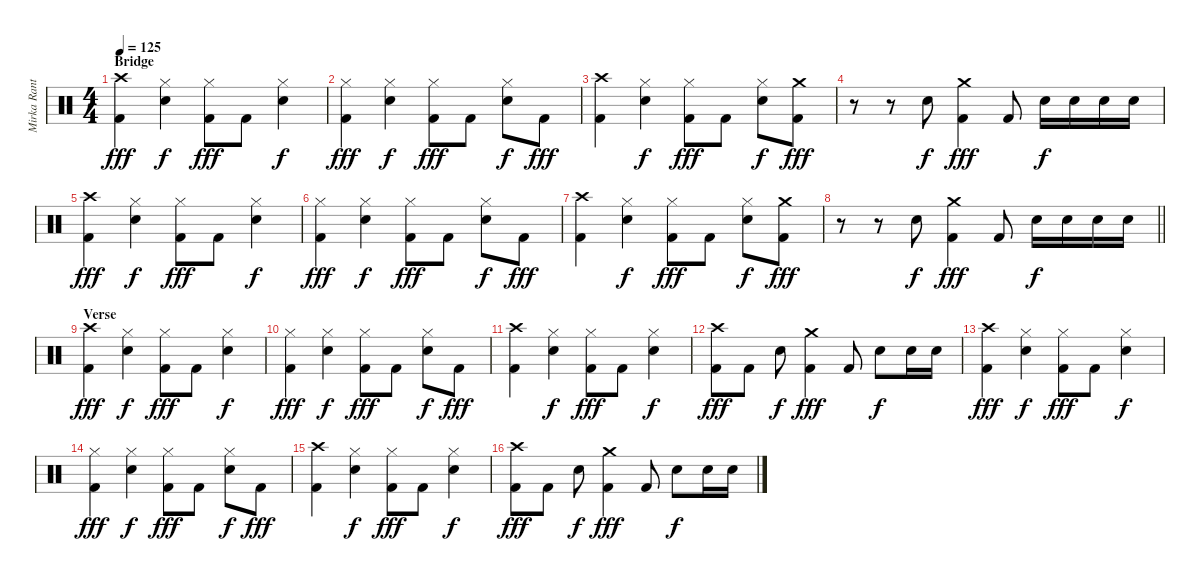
\track ("Mirka Rantanen (Thunderstone)" "Mirka Rant") {instrument percussion}
\staff {score}
\articulation defaults
\ts (4 4)
\section ("" "Bridge")
\tempo 125
\clef neutral
\ks c
("Crash high (hit)" "Kick (hit) 2").4{dy fff} ("Hi-Hat (closed)" "Electric Snare (hit)").4{dy f} ("Hi-Hat (closed)" "Kick (hit) 2").8{dy fff} "Kick (hit) 2".8 ("Hi-Hat (closed)" "Electric Snare (hit)").4{dy f} |
("Hi-Hat (closed)" "Kick (hit) 2").4{dy fff} ("Hi-Hat (closed)" "Electric Snare (hit)").4{dy f} ("Hi-Hat (closed)" "Kick (hit) 2").8{dy fff} "Kick (hit) 2".8 ("Hi-Hat (closed)" "Electric Snare (hit)").8{dy f} "Kick (hit) 2".8{dy fff} |
("Crash high (hit)" "Kick (hit) 2").4 ("Hi-Hat (closed)" "Electric Snare (hit)").4{dy f} ("Hi-Hat (closed)" "Kick (hit) 2").8{dy fff} "Kick (hit) 2".8 ("Hi-Hat (closed)" "Electric Snare (hit)").8{dy f} ("Crash medium (hit)" "Kick (hit) 2").8{dy fff} |
r.8 r.8 "Electric Snare (hit)".8{dy f} ("Crash medium (hit)" "Kick (hit) 2").4{dy fff} "Kick (hit) 2".8 "Electric Snare (hit)".16{dy f} "Electric Snare (hit)".16 "Electric Snare (hit)".16 "Electric Snare (hit)".16 |
("Crash high (hit)" "Kick (hit) 2").4{dy fff} ("Hi-Hat (closed)" "Electric Snare (hit)").4{dy f} ("Hi-Hat (closed)" "Kick (hit) 2").8{dy fff} "Kick (hit) 2".8 ("Hi-Hat (closed)" "Electric Snare (hit)").4{dy f} |
("Hi-Hat (closed)" "Kick (hit) 2").4{dy fff} ("Hi-Hat (closed)" "Electric Snare (hit)").4{dy f} ("Hi-Hat (closed)" "Kick (hit) 2").8{dy fff} "Kick (hit) 2".8 ("Hi-Hat (closed)" "Electric Snare (hit)").8{dy f} "Kick (hit) 2".8{dy fff} |
("Crash high (hit)" "Kick (hit) 2").4 ("Hi-Hat (closed)" "Electric Snare (hit)").4{dy f} ("Hi-Hat (closed)" "Kick (hit) 2").8{dy fff} "Kick (hit) 2".8 ("Hi-Hat (closed)" "Electric Snare (hit)").8{dy f} ("Crash medium (hit)" "Kick (hit) 2").8{dy fff} |
\barLineRight lightlight
r.8 r.8 "Electric Snare (hit)".8{dy f} ("Crash medium (hit)" "Kick (hit) 2").4{dy fff} "Kick (hit) 2".8 "Electric Snare (hit)".16{dy f} "Electric Snare (hit)".16 "Electric Snare (hit)".16 "Electric Snare (hit)".16 |
\section ("" "Verse")
("Crash high (hit)" "Kick (hit) 2").4{dy fff} ("Hi-Hat (closed)" "Electric Snare (hit)").4{dy f} ("Hi-Hat (closed)" "Kick (hit) 2").8{dy fff} "Kick (hit) 2".8 ("Hi-Hat (closed)" "Electric Snare (hit)").4{dy f} |
("Hi-Hat (closed)" "Kick (hit) 2").4{dy fff} ("Hi-Hat (closed)" "Electric Snare (hit)").4{dy f} ("Hi-Hat (closed)" "Kick (hit) 2").8{dy fff} "Kick (hit) 2".8 ("Hi-Hat (closed)" "Electric Snare (hit)").8{dy f} "Kick (hit) 2".8{dy fff} |
("Crash high (hit)" "Kick (hit) 2").4 ("Hi-Hat (closed)" "Electric Snare (hit)").4{dy f} ("Hi-Hat (closed)" "Kick (hit) 2").8{dy fff} "Kick (hit) 2".8 ("Hi-Hat (closed)" "Electric Snare (hit)").4{dy f} |
("Crash high (hit)" "Kick (hit) 2").8{dy fff} "Kick (hit) 2".8 "Electric Snare (hit)".8{dy f} ("Crash medium (hit)" "Kick (hit) 2").4{dy fff} "Kick (hit) 2".8 "Electric Snare (hit)".8{dy f} "Electric Snare (hit)".16 "Electric Snare (hit)".16 |
("Crash high (hit)" "Kick (hit) 2").4{dy fff} ("Hi-Hat (closed)" "Electric Snare (hit)").4{dy f} ("Hi-Hat (closed)" "Kick (hit) 2").8{dy fff} "Kick (hit) 2".8 ("Hi-Hat (closed)" "Electric Snare (hit)").4{dy f} |
("Hi-Hat (closed)" "Kick (hit) 2").4{dy fff} ("Hi-Hat (closed)" "Electric Snare (hit)").4{dy f} ("Hi-Hat (closed)" "Kick (hit) 2").8{dy fff} "Kick (hit) 2".8 ("Hi-Hat (closed)" "Electric Snare (hit)").8{dy f} "Kick (hit) 2".8{dy fff} |
("Crash high (hit)" "Kick (hit) 2").4 ("Hi-Hat (closed)" "Electric Snare (hit)").4{dy f} ("Hi-Hat (closed)" "Kick (hit) 2").8{dy fff} "Kick (hit) 2".8 ("Hi-Hat (closed)" "Electric Snare (hit)").4{dy f} |
("Crash high (hit)" "Kick (hit) 2").8{dy fff} "Kick (hit) 2".8 "Electric Snare (hit)".8{dy f} ("Crash medium (hit)" "Kick (hit) 2").4{dy fff} "Kick (hit) 2".8 "Electric Snare (hit)".8{dy f} "Electric Snare (hit)".16 "Electric Snare (hit)".16
